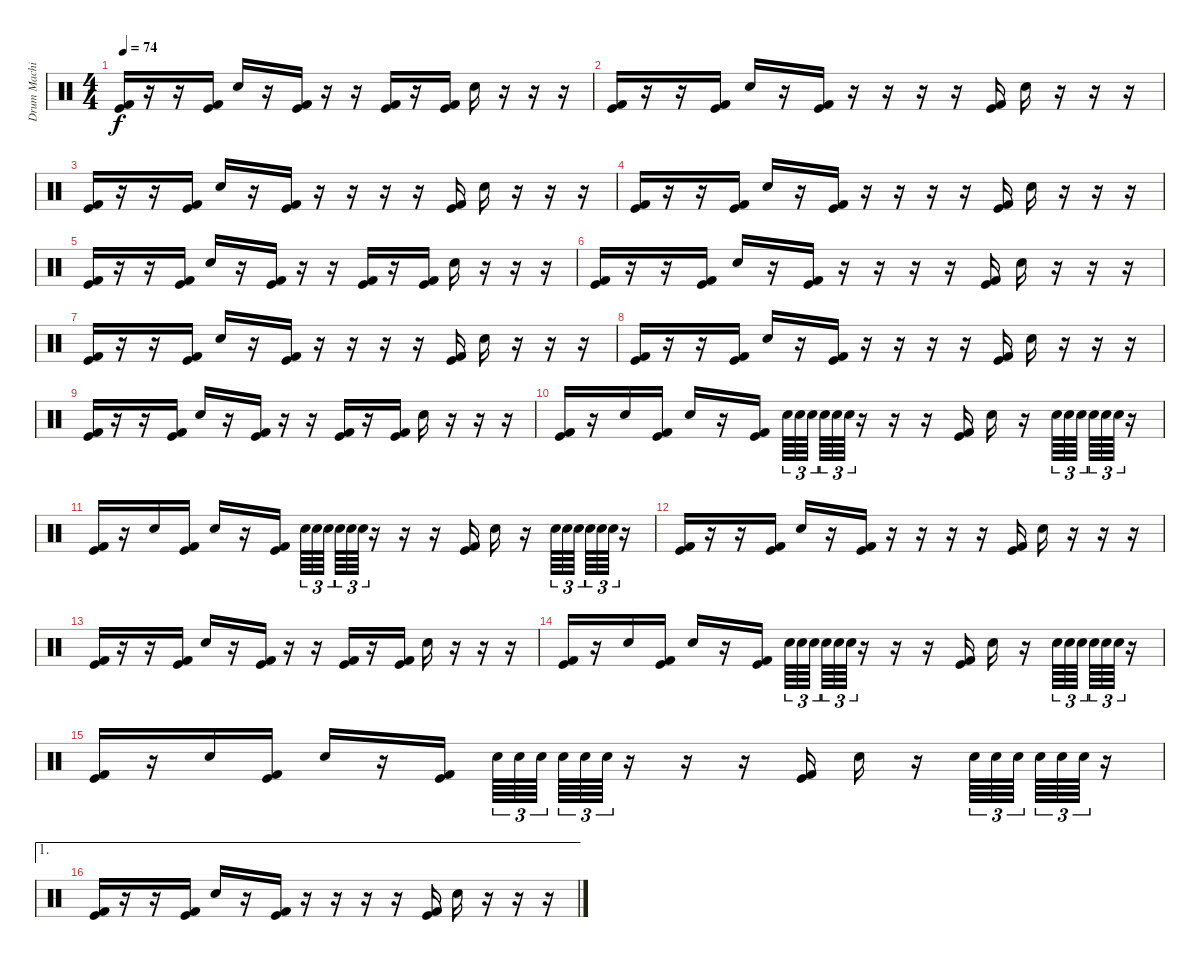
\track ("Drum Machine" "Drum Machi") {instrument percussion}
\staff {score}
\articulation defaults
\ts (4 4)
\tempo 74
\clef neutral
\ks c
("Kick (hit) 2" "Kick (hit)").16{dy f} r.16 r.16 ("Kick (hit) 2" "Kick (hit)").16 "Snare (hit) 2".16 r.16 ("Kick (hit) 2" "Kick (hit)").16 r.16 r.16 ("Kick (hit) 2" "Kick (hit)").16 r.16 ("Kick (hit) 2" "Kick (hit)").16 "Snare (hit) 2".16 r.16 r.16 r.16 |
("Kick (hit) 2" "Kick (hit)").16 r.16 r.16 ("Kick (hit) 2" "Kick (hit)").16 "Snare (hit) 2".16 r.16 ("Kick (hit) 2" "Kick (hit)").16 r.16 r.16 r.16 r.16 ("Kick (hit) 2" "Kick (hit)").16 "Snare (hit) 2".16 r.16 r.16 r.16 |
("Kick (hit) 2" "Kick (hit)").16 r.16 r.16 ("Kick (hit) 2" "Kick (hit)").16 "Snare (hit) 2".16 r.16 ("Kick (hit) 2" "Kick (hit)").16 r.16 r.16 r.16 r.16 ("Kick (hit) 2" "Kick (hit)").16 "Snare (hit) 2".16 r.16 r.16 r.16 |
("Kick (hit) 2" "Kick (hit)").16 r.16 r.16 ("Kick (hit) 2" "Kick (hit)").16 "Snare (hit) 2".16 r.16 ("Kick (hit) 2" "Kick (hit)").16 r.16 r.16 r.16 r.16 ("Kick (hit) 2" "Kick (hit)").16 "Snare (hit) 2".16 r.16 r.16 r.16 |
("Kick (hit) 2" "Kick (hit)").16 r.16 r.16 ("Kick (hit) 2" "Kick (hit)").16 "Snare (hit) 2".16 r.16 ("Kick (hit) 2" "Kick (hit)").16 r.16 r.16 ("Kick (hit) 2" "Kick (hit)").16 r.16 ("Kick (hit) 2" "Kick (hit)").16 "Snare (hit) 2".16 r.16 r.16 r.16 |
("Kick (hit) 2" "Kick (hit)").16 r.16 r.16 ("Kick (hit) 2" "Kick (hit)").16 "Snare (hit) 2".16 r.16 ("Kick (hit) 2" "Kick (hit)").16 r.16 r.16 r.16 r.16 ("Kick (hit) 2" "Kick (hit)").16 "Snare (hit) 2".16 r.16 r.16 r.16 |
("Kick (hit) 2" "Kick (hit)").16 r.16 r.16 ("Kick (hit) 2" "Kick (hit)").16 "Snare (hit) 2".16 r.16 ("Kick (hit) 2" "Kick (hit)").16 r.16 r.16 r.16 r.16 ("Kick (hit) 2" "Kick (hit)").16 "Snare (hit) 2".16 r.16 r.16 r.16 |
("Kick (hit) 2" "Kick (hit)").16 r.16 r.16 ("Kick (hit) 2" "Kick (hit)").16 "Snare (hit) 2".16 r.16 ("Kick (hit) 2" "Kick (hit)").16 r.16 r.16 r.16 r.16 ("Kick (hit) 2" "Kick (hit)").16 "Snare (hit) 2".16 r.16 r.16 r.16 |
("Kick (hit) 2" "Kick (hit)").16 r.16 r.16 ("Kick (hit) 2" "Kick (hit)").16 "Snare (hit) 2".16 r.16 ("Kick (hit) 2" "Kick (hit)").16 r.16 r.16 ("Kick (hit) 2" "Kick (hit)").16 r.16 ("Kick (hit) 2" "Kick (hit)").16 "Snare (hit) 2".16 r.16 r.16 r.16 |
("Kick (hit) 2" "Kick (hit)").16 r.16 "Snare (hit) 2".16 ("Kick (hit) 2" "Kick (hit)").16 "Snare (hit) 2".16 r.16 ("Kick (hit) 2" "Kick (hit)").16 "Snare (hit) 2".64{tu (3 2)} "Snare (hit) 2".64{tu (3 2)} "Snare (hit) 2".64{tu (3 2)} "Snare (hit) 2".64{tu (3 2)} "Snare (hit) 2".64{tu (3 2)} "Snare (hit) 2".64{tu (3 2)} r.16 r.16 r.16 ("Kick (hit) 2" "Kick (hit)").16 "Snare (hit) 2".16 r.16 "Snare (hit) 2".64{tu (3 2)} "Snare (hit) 2".64{tu (3 2)} "Snare (hit) 2".64{tu (3 2)} "Snare (hit) 2".64{tu (3 2)} "Snare (hit) 2".64{tu (3 2)} "Snare (hit) 2".64{tu (3 2)} r.16 |
("Kick (hit) 2" "Kick (hit)").16 r.16 "Snare (hit) 2".16 ("Kick (hit) 2" "Kick (hit)").16 "Snare (hit) 2".16 r.16 ("Kick (hit) 2" "Kick (hit)").16 "Snare (hit) 2".64{tu (3 2)} "Snare (hit) 2".64{tu (3 2)} "Snare (hit) 2".64{tu (3 2)} "Snare (hit) 2".64{tu (3 2)} "Snare (hit) 2".64{tu (3 2)} "Snare (hit) 2".64{tu (3 2)} r.16 r.16 r.16 ("Kick (hit) 2" "Kick (hit)").16 "Snare (hit) 2".16 r.16 "Snare (hit) 2".64{tu (3 2)} "Snare (hit) 2".64{tu (3 2)} "Snare (hit) 2".64{tu (3 2)} "Snare (hit) 2".64{tu (3 2)} "Snare (hit) 2".64{tu (3 2)} "Snare (hit) 2".64{tu (3 2)} r.16 |
("Kick (hit) 2" "Kick (hit)").16 r.16 r.16 ("Kick (hit) 2" "Kick (hit)").16 "Snare (hit) 2".16 r.16 ("Kick (hit) 2" "Kick (hit)").16 r.16 r.16 r.16 r.16 ("Kick (hit) 2" "Kick (hit)").16 "Snare (hit) 2".16 r.16 r.16 r.16 |
("Kick (hit) 2" "Kick (hit)").16 r.16 r.16 ("Kick (hit) 2" "Kick (hit)").16 "Snare (hit) 2".16 r.16 ("Kick (hit) 2" "Kick (hit)").16 r.16 r.16 ("Kick (hit) 2" "Kick (hit)").16 r.16 ("Kick (hit) 2" "Kick (hit)").16 "Snare (hit) 2".16 r.16 r.16 r.16 |
("Kick (hit) 2" "Kick (hit)").16 r.16 "Snare (hit) 2".16 ("Kick (hit) 2" "Kick (hit)").16 "Snare (hit) 2".16 r.16 ("Kick (hit) 2" "Kick (hit)").16 "Snare (hit) 2".64{tu (3 2)} "Snare (hit) 2".64{tu (3 2)} "Snare (hit) 2".64{tu (3 2)} "Snare (hit) 2".64{tu (3 2)} "Snare (hit) 2".64{tu (3 2)} "Snare (hit) 2".64{tu (3 2)} r.16 r.16 r.16 ("Kick (hit) 2" "Kick (hit)").16 "Snare (hit) 2".16 r.16 "Snare (hit) 2".64{tu (3 2)} "Snare (hit) 2".64{tu (3 2)} "Snare (hit) 2".64{tu (3 2)} "Snare (hit) 2".64{tu (3 2)} "Snare (hit) 2".64{tu (3 2)} "Snare (hit) 2".64{tu (3 2)} r.16 |
("Kick (hit) 2" "Kick (hit)").16 r.16 "Snare (hit) 2".16 ("Kick (hit) 2" "Kick (hit)").16 "Snare (hit) 2".16 r.16 ("Kick (hit) 2" "Kick (hit)").16 "Snare (hit) 2".64{tu (3 2)} "Snare (hit) 2".64{tu (3 2)} "Snare (hit) 2".64{tu (3 2)} "Snare (hit) 2".64{tu (3 2)} "Snare (hit) 2".64{tu (3 2)} "Snare (hit) 2".64{tu (3 2)} r.16 r.16 r.16 ("Kick (hit) 2" "Kick (hit)").16 "Snare (hit) 2".16 r.16 "Snare (hit) 2".64{tu (3 2)} "Snare (hit) 2".64{tu (3 2)} "Snare (hit) 2".64{tu (3 2)} "Snare (hit) 2".64{tu (3 2)} "Snare (hit) 2".64{tu (3 2)} "Snare (hit) 2".64{tu (3 2)} r.16 |
\ae 1
("Kick (hit) 2" "Kick (hit)").16 r.16 r.16 ("Kick (hit) 2" "Kick (hit)").16 "Snare (hit) 2".16 r.16 ("Kick (hit) 2" "Kick (hit)").16 r.16 r.16 r.16 r.16 ("Kick (hit) 2" "Kick (hit)").16 "Snare (hit) 2".16 r.16 r.16 r.16
